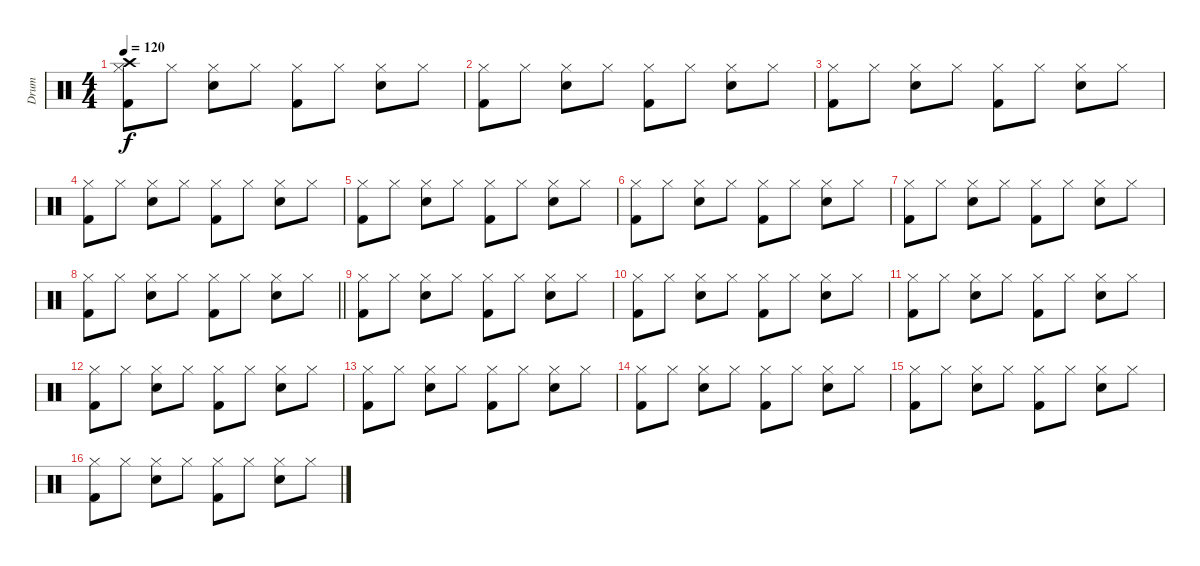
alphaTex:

\track ("Drum" "Drum") {instrument percussion}
\staff {score}
\articulation defaults
\ts (4 4)
\tempo 120
\clef neutral
\ks c
("Crash high (hit)" "Hi-Hat (closed)" "Kick (hit) 2").8{dy f volume 13} "Hi-Hat (closed)".8 ("Hi-Hat (closed)" "Snare (hit) 2").8 "Hi-Hat (closed)".8 ("Hi-Hat (closed)" "Kick (hit) 2").8 "Hi-Hat (closed)".8 ("Hi-Hat (closed)" "Snare (hit) 2").8 "Hi-Hat (closed)".8 |
("Hi-Hat (closed)" "Kick (hit) 2").8 "Hi-Hat (closed)".8 ("Hi-Hat (closed)" "Snare (hit) 2").8 "Hi-Hat (closed)".8 ("Hi-Hat (closed)" "Kick (hit) 2").8 "Hi-Hat (closed)".8 ("Hi-Hat (closed)" "Snare (hit) 2").8 "Hi-Hat (closed)".8 |
("Hi-Hat (closed)" "Kick (hit) 2").8 "Hi-Hat (closed)".8 ("Hi-Hat (closed)" "Snare (hit) 2").8 "Hi-Hat (closed)".8 ("Hi-Hat (closed)" "Kick (hit) 2").8 "Hi-Hat (closed)".8 ("Hi-Hat (closed)" "Snare (hit) 2").8 "Hi-Hat (closed)".8 |
("Hi-Hat (closed)" "Kick (hit) 2").8 "Hi-Hat (closed)".8 ("Hi-Hat (closed)" "Snare (hit) 2").8 "Hi-Hat (closed)".8 ("Hi-Hat (closed)" "Kick (hit) 2").8 "Hi-Hat (closed)".8 ("Hi-Hat (closed)" "Snare (hit) 2").8 "Hi-Hat (closed)".8 |
("Hi-Hat (closed)" "Kick (hit) 2").8 "Hi-Hat (closed)".8 ("Hi-Hat (closed)" "Snare (hit) 2").8 "Hi-Hat (closed)".8 ("Hi-Hat (closed)" "Kick (hit) 2").8 "Hi-Hat (closed)".8 ("Hi-Hat (closed)" "Snare (hit) 2").8 "Hi-Hat (closed)".8 |
("Hi-Hat (closed)" "Kick (hit) 2").8 "Hi-Hat (closed)".8 ("Hi-Hat (closed)" "Snare (hit) 2").8 "Hi-Hat (closed)".8 ("Hi-Hat (closed)" "Kick (hit) 2").8 "Hi-Hat (closed)".8 ("Hi-Hat (closed)" "Snare (hit) 2").8 "Hi-Hat (closed)".8 |
("Hi-Hat (closed)" "Kick (hit) 2").8{volume 13} "Hi-Hat (closed)".8 ("Hi-Hat (closed)" "Snare (hit) 2").8 "Hi-Hat (closed)".8 ("Hi-Hat (closed)" "Kick (hit) 2").8 "Hi-Hat (closed)".8 ("Hi-Hat (closed)" "Snare (hit) 2").8 "Hi-Hat (closed)".8 |
\barLineRight lightlight
("Hi-Hat (closed)" "Kick (hit) 2").8 "Hi-Hat (closed)".8 ("Hi-Hat (closed)" "Snare (hit) 2").8 "Hi-Hat (closed)".8 ("Hi-Hat (closed)" "Kick (hit) 2").8 "Hi-Hat (closed)".8 ("Hi-Hat (closed)" "Snare (hit) 2").8 "Hi-Hat (closed)".8 |
\section ("" "")
("Hi-Hat (closed)" "Kick (hit) 2").8 "Hi-Hat (closed)".8 ("Hi-Hat (closed)" "Snare (hit) 2").8 "Hi-Hat (closed)".8 ("Hi-Hat (closed)" "Kick (hit) 2").8 "Hi-Hat (closed)".8 ("Hi-Hat (closed)" "Snare (hit) 2").8 "Hi-Hat (closed)".8 |
("Hi-Hat (closed)" "Kick (hit) 2").8 "Hi-Hat (closed)".8 ("Hi-Hat (closed)" "Snare (hit) 2").8 "Hi-Hat (closed)".8 ("Hi-Hat (closed)" "Kick (hit) 2").8 "Hi-Hat (closed)".8 ("Hi-Hat (closed)" "Snare (hit) 2").8 "Hi-Hat (closed)".8 |
("Hi-Hat (closed)" "Kick (hit) 2").8 "Hi-Hat (closed)".8 ("Hi-Hat (closed)" "Snare (hit) 2").8 "Hi-Hat (closed)".8 ("Hi-Hat (closed)" "Kick (hit) 2").8 "Hi-Hat (closed)".8 ("Hi-Hat (closed)" "Snare (hit) 2").8 "Hi-Hat (closed)".8 |
("Hi-Hat (closed)" "Kick (hit) 2").8 "Hi-Hat (closed)".8 ("Hi-Hat (closed)" "Snare (hit) 2").8 "Hi-Hat (closed)".8 ("Hi-Hat (closed)" "Kick (hit) 2").8 "Hi-Hat (closed)".8 ("Hi-Hat (closed)" "Snare (hit) 2").8 "Hi-Hat (closed)".8 |
("Hi-Hat (closed)" "Kick (hit) 2").8 "Hi-Hat (closed)".8 ("Hi-Hat (closed)" "Snare (hit) 2").8 "Hi-Hat (closed)".8 ("Hi-Hat (closed)" "Kick (hit) 2").8 "Hi-Hat (closed)".8 ("Hi-Hat (closed)" "Snare (hit) 2").8 "Hi-Hat (closed)".8 |
("Hi-Hat (closed)" "Kick (hit) 2").8 "Hi-Hat (closed)".8 ("Hi-Hat (closed)" "Snare (hit) 2").8 "Hi-Hat (closed)".8 ("Hi-Hat (closed)" "Kick (hit) 2").8 "Hi-Hat (closed)".8 ("Hi-Hat (closed)" "Snare (hit) 2").8 "Hi-Hat (closed)".8 |
("Hi-Hat (closed)" "Kick (hit) 2").8 "Hi-Hat (closed)".8 ("Hi-Hat (closed)" "Snare (hit) 2").8 "Hi-Hat (closed)".8 ("Hi-Hat (closed)" "Kick (hit) 2").8 "Hi-Hat (closed)".8 ("Hi-Hat (closed)" "Snare (hit) 2").8 "Hi-Hat (closed)".8 |
("Hi-Hat (closed)" "Kick (hit) 2").8 "Hi-Hat (closed)".8 ("Hi-Hat (closed)" "Snare (hit) 2").8 "Hi-Hat (closed)".8 ("Hi-Hat (closed)" "Kick (hit) 2").8 "Hi-Hat (closed)".8 ("Hi-Hat (closed)" "Snare (hit) 2").8 "Hi-Hat (closed)".8
